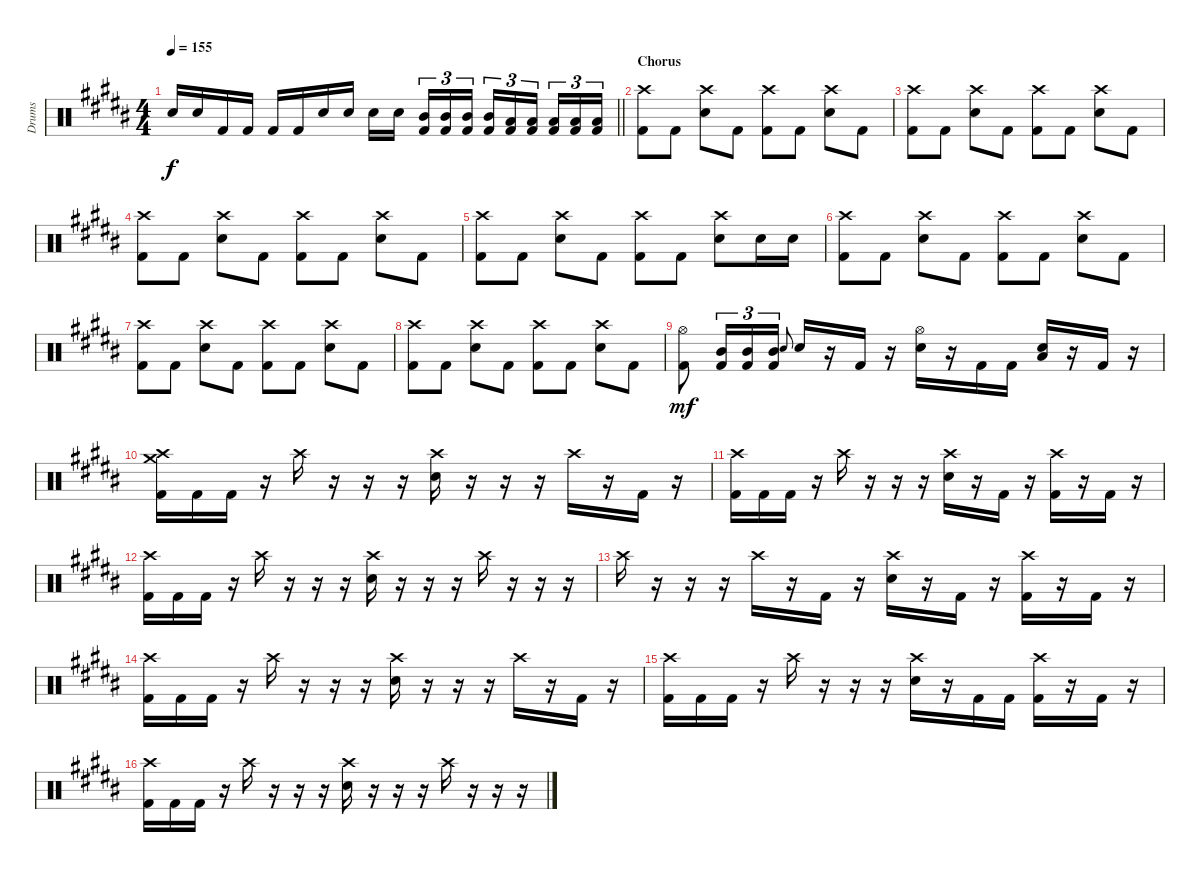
\track ("Drums" "Drums") {instrument percussion}
\staff {score}
\articulation defaults
\ts (4 4)
\tempo 155
\clef neutral
\barLineRight lightlight
\ks g#minor "Electric Snare (hit)".16{dy f} "Electric Snare (hit)".16 "Kick (hit) 2".16 "Kick (hit) 2".16 "Kick (hit) 2".16 "Kick (hit) 2".16 "Electric Snare (hit)".16 "Electric Snare (hit)".16 "Electric Snare (hit)".16 "Electric Snare (hit)".16{beam splitsecondary}
("Mid Tom (hit)" "Kick (hit) 2").16{tu (3 2)} ("Mid Tom (hit)" "Kick (hit) 2").16{tu (3 2)} ("Mid Tom (hit)" "Kick (hit) 2").16{tu (3 2)} ("Mid Tom (hit)" "Kick (hit) 2").16{tu (3 2)} ("Low Floor Tom (hit)" "Kick (hit) 2").16{tu (3 2)} ("Low Floor Tom (hit)" "Kick (hit) 2").16{tu (3 2) beam splitsecondary} ("Low Floor Tom (hit)" "Kick (hit) 2").16{tu (3 2)} ("Low Floor Tom (hit)" "Kick (hit) 2").16{tu (3 2)} ("Low Floor Tom (hit)" "Kick (hit) 2").16{tu (3 2)} |
\section ("" "Chorus")
("Crash high (hit)" "Kick (hit) 2").8 "Kick (hit) 2".8 ("Crash high (hit)" "Electric Snare (hit)").8 "Kick (hit) 2".8 ("Crash high (hit)" "Kick (hit) 2").8 "Kick (hit) 2".8 ("Crash high (hit)" "Electric Snare (hit)").8 "Kick (hit) 2".8 |
("Crash high (hit)" "Kick (hit) 2").8 "Kick (hit) 2".8 ("Crash high (hit)" "Electric Snare (hit)").8 "Kick (hit) 2".8 ("Crash high (hit)" "Kick (hit) 2").8 "Kick (hit) 2".8 ("Crash high (hit)" "Electric Snare (hit)").8 "Kick (hit) 2".8 |
("Crash high (hit)" "Kick (hit) 2").8 "Kick (hit) 2".8 ("Crash high (hit)" "Electric Snare (hit)").8 "Kick (hit) 2".8 ("Crash high (hit)" "Kick (hit) 2").8 "Kick (hit) 2".8 ("Crash high (hit)" "Electric Snare (hit)").8 "Kick (hit) 2".8 |
("Crash high (hit)" "Kick (hit) 2").8 "Kick (hit) 2".8 ("Crash high (hit)" "Electric Snare (hit)").8 "Kick (hit) 2".8 ("Crash high (hit)" "Kick (hit) 2").8 "Kick (hit) 2".8 ("Crash high (hit)" "Electric Snare (hit)").8 "Electric Snare (hit)".16 "Electric Snare (hit)".16 |
("Crash high (hit)" "Kick (hit) 2").8 "Kick (hit) 2".8 ("Crash high (hit)" "Electric Snare (hit)").8 "Kick (hit) 2".8 ("Crash high (hit)" "Kick (hit) 2").8 "Kick (hit) 2".8 ("Crash high (hit)" "Electric Snare (hit)").8 "Kick (hit) 2".8 |
("Crash high (hit)" "Kick (hit) 2").8 "Kick (hit) 2".8 ("Crash high (hit)" "Electric Snare (hit)").8 "Kick (hit) 2".8 ("Crash high (hit)" "Kick (hit) 2").8 "Kick (hit) 2".8 ("Crash high (hit)" "Electric Snare (hit)").8 "Kick (hit) 2".8 |
("Crash high (hit)" "Kick (hit) 2").8 "Kick (hit) 2".8 ("Crash high (hit)" "Electric Snare (hit)").8 "Kick (hit) 2".8 ("Crash high (hit)" "Kick (hit) 2").8 "Kick (hit) 2".8 ("Crash high (hit)" "Electric Snare (hit)").8 "Kick (hit) 2".8 |
("Hi-Hat (open)" "Kick (hit) 2").8{dy mf} ("Mid Tom (hit)" "Kick (hit) 2").16{tu (3 2)} ("Mid Tom (hit)" "Kick (hit) 2").16{tu (3 2)} ("Mid Tom (hit)" "Kick (hit) 2").16{tu (3 2)} "Electric Snare (hit)"{h}.8{gr onbeat} "Electric Snare (hit)".16 r.16 "Kick (hit) 2".16 r.16 ("Hi-Hat (open)" "Electric Snare (hit)").16 r.16 "Kick (hit) 2".16 "Kick (hit) 2".16 ("Low Floor Tom (hit)" "Electric Snare (hit)").16 r.16 "Kick (hit) 2".16 r.16 |
("Crash high (hit)" "Crash medium (hit)" "Kick (hit) 2").16 "Kick (hit) 2".16 "Kick (hit) 2".16 r.16 "Crash high (hit)".16 r.16 r.16 r.16 ("Crash high (hit)" "Electric Snare (hit)").16 r.16 r.16 r.16 "Crash high (hit)".16 r.16 "Kick (hit) 2".16 r.16 |
("Crash high (hit)" "Kick (hit) 2").16 "Kick (hit) 2".16 "Kick (hit) 2".16 r.16 "Crash high (hit)".16 r.16 r.16 r.16 ("Crash high (hit)" "Electric Snare (hit)").16 r.16 "Kick (hit) 2".16 r.16 ("Crash high (hit)" "Kick (hit) 2").16 r.16 "Kick (hit) 2".16 r.16 |
("Crash high (hit)" "Kick (hit) 2").16 "Kick (hit) 2".16 "Kick (hit) 2".16 r.16 "Crash high (hit)".16 r.16 r.16 r.16 ("Crash high (hit)" "Electric Snare (hit)").16 r.16 r.16 r.16 "Crash high (hit)".16 r.16 r.16 r.16 |
"Crash high (hit)".16 r.16 r.16 r.16 "Crash high (hit)".16 r.16 "Kick (hit) 2".16 r.16 ("Crash high (hit)" "Electric Snare (hit)").16 r.16 "Kick (hit) 2".16 r.16 ("Crash high (hit)" "Kick (hit) 2").16 r.16 "Kick (hit) 2".16 r.16 |
("Crash high (hit)" "Kick (hit) 2").16 "Kick (hit) 2".16 "Kick (hit) 2".16 r.16 "Crash high (hit)".16 r.16 r.16 r.16 ("Crash high (hit)" "Electric Snare (hit)").16 r.16 r.16 r.16 "Crash high (hit)".16 r.16 "Kick (hit) 2".16 r.16 |
("Crash high (hit)" "Kick (hit) 2").16 "Kick (hit) 2".16 "Kick (hit) 2".16 r.16 "Crash high (hit)".16 r.16 r.16 r.16 ("Crash high (hit)" "Electric Snare (hit)").16 r.16 "Kick (hit) 2".16 "Kick (hit) 2".16 ("Crash high (hit)" "Kick (hit) 2").16 r.16 "Kick (hit) 2".16 r.16 |
("Crash high (hit)" "Kick (hit) 2").16 "Kick (hit) 2".16 "Kick (hit) 2".16 r.16 "Crash high (hit)".16 r.16 r.16 r.16 ("Crash high (hit)" "Electric Snare (hit)").16 r.16 r.16 r.16 "Crash high (hit)".16 r.16 r.16 r.16
